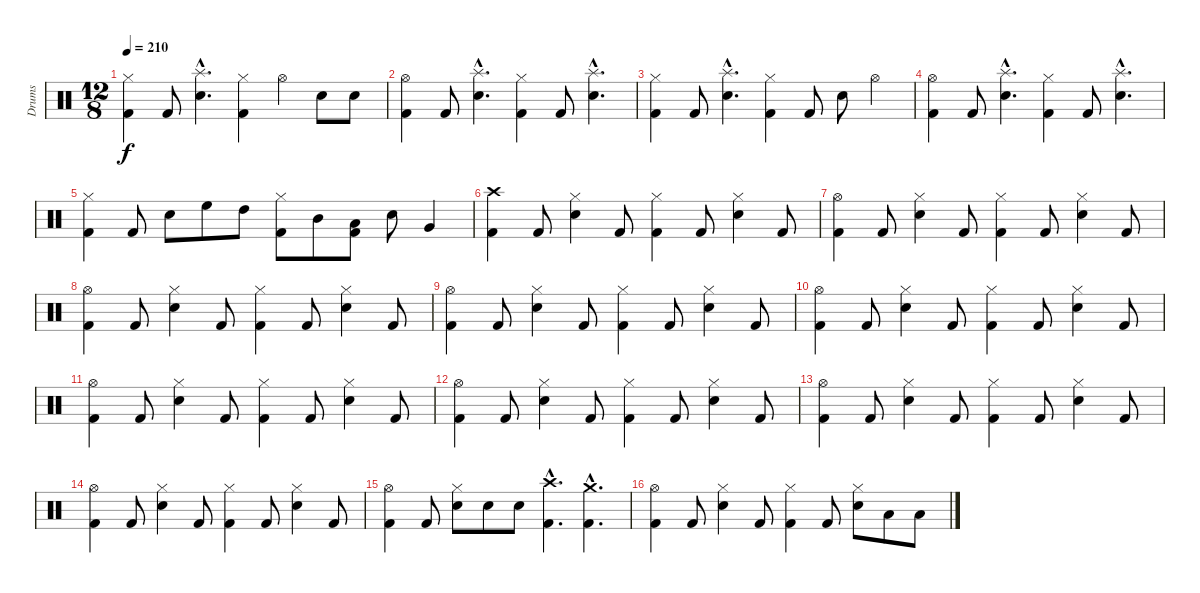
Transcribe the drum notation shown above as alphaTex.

\track ("Drums" "Drums") {instrument percussion}
\staff {score}
\articulation defaults
\ts (12 8)
\tempo 210
\clef neutral
\ks c
("Kick (hit) 2" "Hi-Hat (closed)").4{dy f} "Kick (hit) 2".8 ("Snare (hit) 2"{hac} "Splash (hit)"{hac}).4{d} ("Kick (hit) 2" "Hi-Hat (closed)").4 "Hi-Hat (open)".4 "Snare (hit) 2".8 "Snare (hit) 2".8 |
("Kick (hit) 2" "Hi-Hat (open)").4 "Kick (hit) 2".8 ("Snare (hit) 2"{hac} "Splash (hit)"{hac}).4{d} ("Kick (hit) 2" "Hi-Hat (closed)").4 "Kick (hit) 2".8 ("Snare (hit) 2"{hac} "Splash (hit)"{hac}).4{d} |
("Kick (hit) 2" "Hi-Hat (closed)").4 "Kick (hit) 2".8 ("Snare (hit) 2"{hac} "Splash (hit)"{hac}).4{d} ("Kick (hit) 2" "Hi-Hat (closed)").4 "Kick (hit) 2".8 "Snare (hit) 2".8 "Hi-Hat (open)".4 |
("Kick (hit) 2" "Hi-Hat (open)").4 "Kick (hit) 2".8 ("Snare (hit) 2"{hac} "Splash (hit)"{hac}).4{d} ("Kick (hit) 2" "Hi-Hat (closed)").4 "Kick (hit) 2".8 ("Snare (hit) 2"{hac} "Splash (hit)"{hac}).4{d} |
("Kick (hit) 2" "Hi-Hat (closed)").4 "Kick (hit) 2".8 "Snare (hit) 2".8 "High Floor Tom (hit)".8 "High Tom (hit)".8 ("Kick (hit) 2" "Hi-Hat (closed)").8 "Mid Tom (hit)".8 ("Kick (hit) 2" "Low Tom (hit)").8 "Snare (hit) 2".8 "Very Low Tom (hit)".4 |
("Kick (hit) 2" "Crash high (hit)").4 "Kick (hit) 2".8 ("Snare (hit) 2" "Hi-Hat (closed)").4 "Kick (hit) 2".8 ("Kick (hit) 2" "Hi-Hat (closed)").4 "Kick (hit) 2".8 ("Snare (hit) 2" "Hi-Hat (closed)").4 "Kick (hit) 2".8 |
("Kick (hit) 2" "Hi-Hat (open)").4 "Kick (hit) 2".8 ("Snare (hit) 2" "Hi-Hat (closed)").4 "Kick (hit) 2".8 ("Kick (hit) 2" "Hi-Hat (closed)").4 "Kick (hit) 2".8 ("Snare (hit) 2" "Hi-Hat (closed)").4 "Kick (hit) 2".8 |
("Kick (hit) 2" "Hi-Hat (open)").4 "Kick (hit) 2".8 ("Snare (hit) 2" "Hi-Hat (closed)").4 "Kick (hit) 2".8 ("Kick (hit) 2" "Hi-Hat (closed)").4 "Kick (hit) 2".8 ("Snare (hit) 2" "Hi-Hat (closed)").4 "Kick (hit) 2".8 |
("Kick (hit) 2" "Hi-Hat (open)").4 "Kick (hit) 2".8 ("Snare (hit) 2" "Hi-Hat (closed)").4 "Kick (hit) 2".8 ("Kick (hit) 2" "Hi-Hat (closed)").4 "Kick (hit) 2".8 ("Snare (hit) 2" "Hi-Hat (closed)").4 "Kick (hit) 2".8 |
("Kick (hit) 2" "Hi-Hat (open)").4 "Kick (hit) 2".8 ("Snare (hit) 2" "Hi-Hat (closed)").4 "Kick (hit) 2".8 ("Kick (hit) 2" "Hi-Hat (closed)").4 "Kick (hit) 2".8 ("Snare (hit) 2" "Hi-Hat (closed)").4 "Kick (hit) 2".8 |
("Kick (hit) 2" "Hi-Hat (open)").4 "Kick (hit) 2".8 ("Snare (hit) 2" "Hi-Hat (closed)").4 "Kick (hit) 2".8 ("Kick (hit) 2" "Hi-Hat (closed)").4 "Kick (hit) 2".8 ("Snare (hit) 2" "Hi-Hat (closed)").4 "Kick (hit) 2".8 |
("Kick (hit) 2" "Hi-Hat (open)").4 "Kick (hit) 2".8 ("Snare (hit) 2" "Hi-Hat (closed)").4 "Kick (hit) 2".8 ("Kick (hit) 2" "Hi-Hat (closed)").4 "Kick (hit) 2".8 ("Snare (hit) 2" "Hi-Hat (closed)").4 "Kick (hit) 2".8 |
("Kick (hit) 2" "Hi-Hat (open)").4 "Kick (hit) 2".8 ("Snare (hit) 2" "Hi-Hat (closed)").4 "Kick (hit) 2".8 ("Kick (hit) 2" "Hi-Hat (closed)").4 "Kick (hit) 2".8 ("Snare (hit) 2" "Hi-Hat (closed)").4 "Kick (hit) 2".8 |
("Kick (hit) 2" "Hi-Hat (open)").4 "Kick (hit) 2".8 ("Snare (hit) 2" "Hi-Hat (closed)").4 "Kick (hit) 2".8 ("Kick (hit) 2" "Hi-Hat (closed)").4 "Kick (hit) 2".8 ("Snare (hit) 2" "Hi-Hat (closed)").4 "Kick (hit) 2".8 |
("Kick (hit) 2" "Hi-Hat (open)").4 "Kick (hit) 2".8 ("Snare (hit) 2" "Hi-Hat (closed)").8 "Snare (hit) 2".8 "Snare (hit) 2".8 ("Kick (hit) 2"{hac} "Crash high (hit)"{hac}).4{d} ("Kick (hit) 2"{hac} "Crash medium (hit)"{hac}).4{d} |
("Kick (hit) 2" "Hi-Hat (open)").4 "Kick (hit) 2".8 ("Snare (hit) 2" "Hi-Hat (closed)").4 "Kick (hit) 2".8 ("Kick (hit) 2" "Hi-Hat (closed)").4 "Kick (hit) 2".8 ("Snare (hit) 2" "Hi-Hat (closed)").8 "Low Tom (hit)".8 "Low Tom (hit)".8
